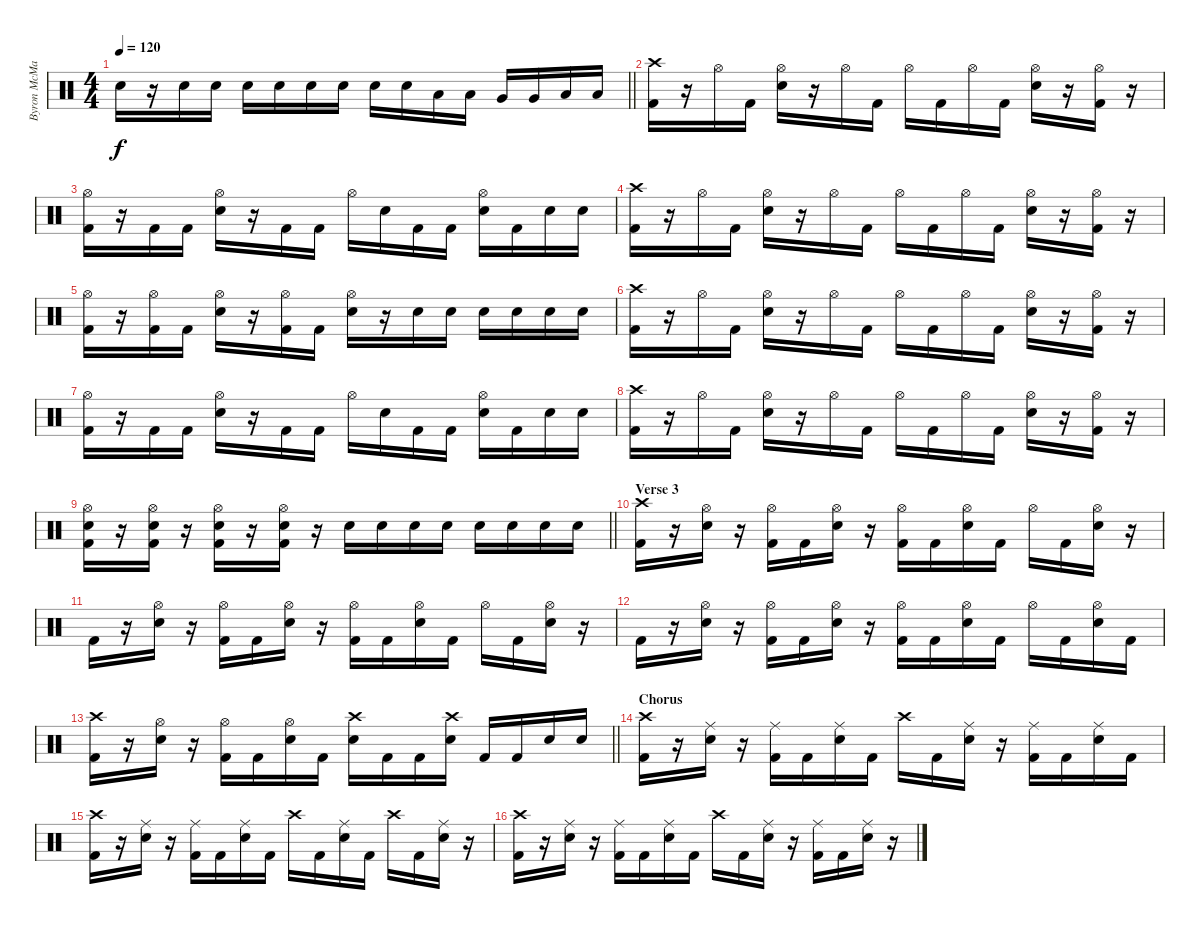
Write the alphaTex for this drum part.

\track ("Byron McMackin" "Byron McMa") {instrument percussion}
\staff {score}
\articulation defaults
\ts (4 4)
\tempo 120
\clef neutral
\barLineRight lightlight
\ks c "Snare (hit) 2".16{dy f}
r.16 "Snare (hit) 2".16 "Snare (hit) 2".16 "Snare (hit) 2".16 "Snare (hit) 2".16 "Snare (hit) 2".16 "Snare (hit) 2".16 "Snare (hit) 2".16 "Snare (hit) 2".16 "Low Tom (hit)".16 "Low Tom (hit)".16 "Very Low Tom (hit)".16 "Very Low Tom (hit)".16 "Low Floor Tom (hit)".16 "Low Floor Tom (hit)".16 |
("Crash high (hit)" "Kick (hit) 2").16 r.16 "Hi-Hat (open)".16 "Kick (hit) 2".16 ("Hi-Hat (open)" "Snare (hit) 2").16 r.16 "Hi-Hat (open)".16 "Kick (hit) 2".16 "Hi-Hat (open)".16 "Kick (hit) 2".16 "Hi-Hat (open)".16 "Kick (hit) 2".16 ("Hi-Hat (open)" "Snare (hit) 2").16 r.16 ("Hi-Hat (open)" "Kick (hit) 2").16 r.16 |
("Hi-Hat (open)" "Kick (hit) 2").16 r.16 "Kick (hit) 2".16 "Kick (hit) 2".16 ("Hi-Hat (open)" "Snare (hit) 2").16 r.16 "Kick (hit) 2".16 "Kick (hit) 2".16 "Hi-Hat (open)".16 "Snare (hit) 2".16 "Kick (hit) 2".16 "Kick (hit) 2".16 ("Hi-Hat (open)" "Snare (hit) 2").16 "Kick (hit) 2".16 "Snare (hit) 2".16 "Snare (hit) 2".16 |
("Crash high (hit)" "Kick (hit) 2").16 r.16 "Hi-Hat (open)".16 "Kick (hit) 2".16 ("Hi-Hat (open)" "Snare (hit) 2").16 r.16 "Hi-Hat (open)".16 "Kick (hit) 2".16 "Hi-Hat (open)".16 "Kick (hit) 2".16 "Hi-Hat (open)".16 "Kick (hit) 2".16 ("Hi-Hat (open)" "Snare (hit) 2").16 r.16 ("Hi-Hat (open)" "Kick (hit) 2").16 r.16 |
("Hi-Hat (open)" "Kick (hit) 2").16 r.16 ("Hi-Hat (open)" "Kick (hit) 2").16 "Kick (hit) 2".16 ("Hi-Hat (open)" "Snare (hit) 2").16 r.16 ("Hi-Hat (open)" "Kick (hit) 2").16 "Kick (hit) 2".16 ("Hi-Hat (open)" "Snare (hit) 2").16 r.16 "Snare (hit) 2".16 "Snare (hit) 2".16 "Snare (hit) 2".16 "Snare (hit) 2".16 "Snare (hit) 2".16 "Snare (hit) 2".16 |
("Crash high (hit)" "Kick (hit) 2").16 r.16 "Hi-Hat (open)".16 "Kick (hit) 2".16 ("Hi-Hat (open)" "Snare (hit) 2").16 r.16 "Hi-Hat (open)".16 "Kick (hit) 2".16 "Hi-Hat (open)".16 "Kick (hit) 2".16 "Hi-Hat (open)".16 "Kick (hit) 2".16 ("Hi-Hat (open)" "Snare (hit) 2").16 r.16 ("Hi-Hat (open)" "Kick (hit) 2").16 r.16 |
("Hi-Hat (open)" "Kick (hit) 2").16 r.16 "Kick (hit) 2".16 "Kick (hit) 2".16 ("Hi-Hat (open)" "Snare (hit) 2").16 r.16 "Kick (hit) 2".16 "Kick (hit) 2".16 "Hi-Hat (open)".16 "Snare (hit) 2".16 "Kick (hit) 2".16 "Kick (hit) 2".16 ("Hi-Hat (open)" "Snare (hit) 2").16 "Kick (hit) 2".16 "Snare (hit) 2".16 "Snare (hit) 2".16 |
("Crash high (hit)" "Kick (hit) 2").16 r.16 "Hi-Hat (open)".16 "Kick (hit) 2".16 ("Hi-Hat (open)" "Snare (hit) 2").16 r.16 "Hi-Hat (open)".16 "Kick (hit) 2".16 "Hi-Hat (open)".16 "Kick (hit) 2".16 "Hi-Hat (open)".16 "Kick (hit) 2".16 ("Hi-Hat (open)" "Snare (hit) 2").16 r.16 ("Hi-Hat (open)" "Kick (hit) 2").16 r.16 |
\barLineRight lightlight
("Hi-Hat (open)" "Snare (hit) 2" "Kick (hit) 2").16 r.16 ("Hi-Hat (open)" "Snare (hit) 2" "Kick (hit) 2").16 r.16 ("Hi-Hat (open)" "Snare (hit) 2" "Kick (hit) 2").16 r.16 ("Hi-Hat (open)" "Snare (hit) 2" "Kick (hit) 2").16 r.16 "Snare (hit) 2".16 "Snare (hit) 2".16 "Snare (hit) 2".16 "Snare (hit) 2".16 "Snare (hit) 2".16 "Snare (hit) 2".16 "Snare (hit) 2".16 "Snare (hit) 2".16 |
\section ("" "Verse 3")
("Crash high (hit)" "Kick (hit) 2").16 r.16 ("Hi-Hat (open)" "Snare (hit) 2").16 r.16 ("Hi-Hat (open)" "Kick (hit) 2").16 "Kick (hit) 2".16 ("Hi-Hat (open)" "Snare (hit) 2").16 r.16 ("Hi-Hat (open)" "Kick (hit) 2").16 "Kick (hit) 2".16 ("Hi-Hat (open)" "Snare (hit) 2").16 "Kick (hit) 2".16 "Hi-Hat (open)".16 "Kick (hit) 2".16 ("Hi-Hat (open)" "Snare (hit) 2").16 r.16 |
"Kick (hit) 2".16 r.16 ("Hi-Hat (open)" "Snare (hit) 2").16 r.16 ("Hi-Hat (open)" "Kick (hit) 2").16 "Kick (hit) 2".16 ("Hi-Hat (open)" "Snare (hit) 2").16 r.16 ("Hi-Hat (open)" "Kick (hit) 2").16 "Kick (hit) 2".16 ("Hi-Hat (open)" "Snare (hit) 2").16 "Kick (hit) 2".16 "Hi-Hat (open)".16 "Kick (hit) 2".16 ("Hi-Hat (open)" "Snare (hit) 2").16 r.16 |
"Kick (hit) 2".16 r.16 ("Hi-Hat (open)" "Snare (hit) 2").16 r.16 ("Hi-Hat (open)" "Kick (hit) 2").16 "Kick (hit) 2".16 ("Hi-Hat (open)" "Snare (hit) 2").16 r.16 ("Hi-Hat (open)" "Kick (hit) 2").16 "Kick (hit) 2".16 ("Hi-Hat (open)" "Snare (hit) 2").16 "Kick (hit) 2".16 "Hi-Hat (open)".16 "Kick (hit) 2".16 ("Hi-Hat (open)" "Snare (hit) 2").16 "Kick (hit) 2".16 |
\barLineRight lightlight
("Crash high (hit)" "Kick (hit) 2").16 r.16 ("Hi-Hat (open)" "Snare (hit) 2").16 r.16 ("Hi-Hat (open)" "Kick (hit) 2").16 "Kick (hit) 2".16 ("Hi-Hat (open)" "Snare (hit) 2").16 "Kick (hit) 2".16 ("Crash high (hit)" "Snare (hit) 2").16 "Kick (hit) 2".16 "Kick (hit) 2".16 ("Crash high (hit)" "Snare (hit) 2").16 "Kick (hit) 2".16 "Kick (hit) 2".16 "Snare (hit) 2".16 "Snare (hit) 2".16 |
\section ("" "Chorus")
("Crash high (hit)" "Kick (hit) 2").16 r.16 ("Ride (middle)" "Snare (hit) 2").16 r.16 ("Ride (middle)" "Kick (hit) 2").16 "Kick (hit) 2".16 ("Ride (middle)" "Snare (hit) 2").16 "Kick (hit) 2".16 "Crash high (hit)".16 "Kick (hit) 2".16 ("Ride (middle)" "Snare (hit) 2").16 r.16 ("Ride (middle)" "Kick (hit) 2").16 "Kick (hit) 2".16 ("Ride (middle)" "Snare (hit) 2").16 "Kick (hit) 2".16 |
("Crash high (hit)" "Kick (hit) 2").16 r.16 ("Ride (middle)" "Snare (hit) 2").16 r.16 ("Ride (middle)" "Kick (hit) 2").16 "Kick (hit) 2".16 ("Ride (middle)" "Snare (hit) 2").16 "Kick (hit) 2".16 "Crash high (hit)".16 "Kick (hit) 2".16 ("Ride (middle)" "Snare (hit) 2").16 "Kick (hit) 2".16 "Crash high (hit)".16 "Kick (hit) 2".16 ("Ride (middle)" "Snare (hit) 2").16 r.16 |
("Crash high (hit)" "Kick (hit) 2").16 r.16 ("Ride (middle)" "Snare (hit) 2").16 r.16 ("Ride (middle)" "Kick (hit) 2").16 "Kick (hit) 2".16 ("Ride (middle)" "Snare (hit) 2").16 "Kick (hit) 2".16 "Crash high (hit)".16 "Kick (hit) 2".16 ("Ride (middle)" "Snare (hit) 2").16 r.16 ("Ride (middle)" "Kick (hit) 2").16 "Kick (hit) 2".16 ("Ride (middle)" "Snare (hit) 2").16 r.16
